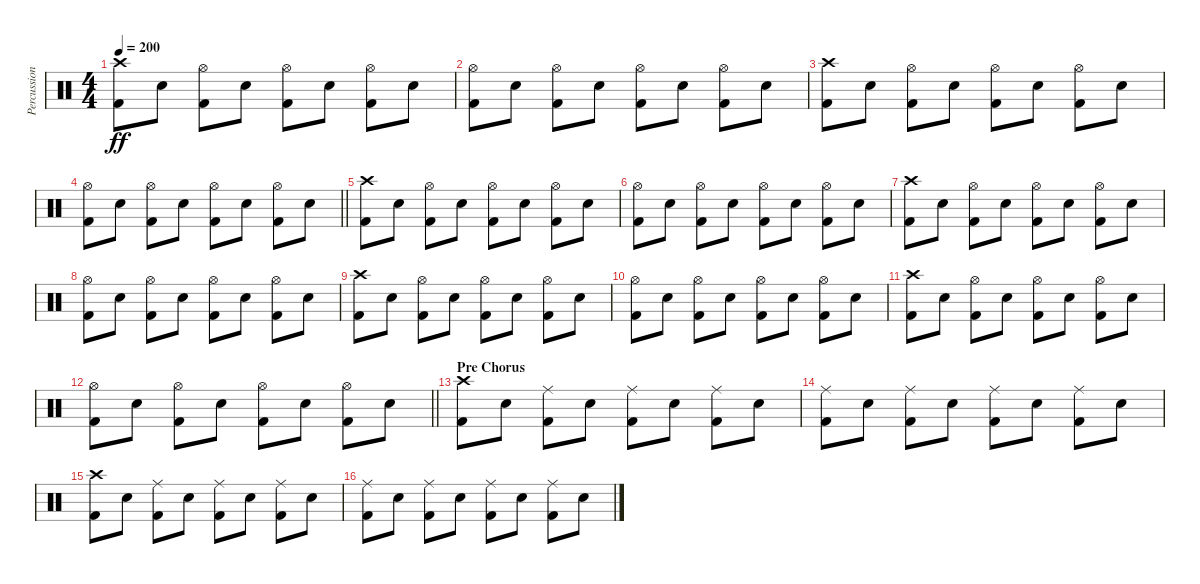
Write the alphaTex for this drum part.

\track ("Percussion" "Percussion") {instrument percussion}
\staff {score}
\articulation defaults
\ts (4 4)
\tempo 200
\clef neutral
\ks c
("Crash high (hit)" "Kick (hit) 2").8{dy ff} "Snare (hit) 2".8 ("Hi-Hat (open)" "Kick (hit) 2").8 "Snare (hit) 2".8 ("Hi-Hat (open)" "Kick (hit) 2").8 "Snare (hit) 2".8 ("Hi-Hat (open)" "Kick (hit) 2").8 "Snare (hit) 2".8 |
("Hi-Hat (open)" "Kick (hit) 2").8 "Snare (hit) 2".8 ("Hi-Hat (open)" "Kick (hit) 2").8 "Snare (hit) 2".8 ("Hi-Hat (open)" "Kick (hit) 2").8 "Snare (hit) 2".8 ("Hi-Hat (open)" "Kick (hit) 2").8 "Snare (hit) 2".8 |
("Crash high (hit)" "Kick (hit) 2").8 "Snare (hit) 2".8 ("Hi-Hat (open)" "Kick (hit) 2").8 "Snare (hit) 2".8 ("Hi-Hat (open)" "Kick (hit) 2").8 "Snare (hit) 2".8 ("Hi-Hat (open)" "Kick (hit) 2").8 "Snare (hit) 2".8 |
\barLineRight lightlight
("Hi-Hat (open)" "Kick (hit) 2").8 "Snare (hit) 2".8 ("Hi-Hat (open)" "Kick (hit) 2").8 "Snare (hit) 2".8 ("Hi-Hat (open)" "Kick (hit) 2").8 "Snare (hit) 2".8 ("Hi-Hat (open)" "Kick (hit) 2").8 "Snare (hit) 2".8 |
("Crash high (hit)" "Kick (hit) 2").8 "Snare (hit) 2".8 ("Hi-Hat (open)" "Kick (hit) 2").8 "Snare (hit) 2".8 ("Hi-Hat (open)" "Kick (hit) 2").8 "Snare (hit) 2".8 ("Hi-Hat (open)" "Kick (hit) 2").8 "Snare (hit) 2".8 |
("Hi-Hat (open)" "Kick (hit) 2").8 "Snare (hit) 2".8 ("Hi-Hat (open)" "Kick (hit) 2").8 "Snare (hit) 2".8 ("Hi-Hat (open)" "Kick (hit) 2").8 "Snare (hit) 2".8 ("Hi-Hat (open)" "Kick (hit) 2").8 "Snare (hit) 2".8 |
("Crash high (hit)" "Kick (hit) 2").8 "Snare (hit) 2".8 ("Hi-Hat (open)" "Kick (hit) 2").8 "Snare (hit) 2".8 ("Hi-Hat (open)" "Kick (hit) 2").8 "Snare (hit) 2".8 ("Hi-Hat (open)" "Kick (hit) 2").8 "Snare (hit) 2".8 |
("Hi-Hat (open)" "Kick (hit) 2").8 "Snare (hit) 2".8 ("Hi-Hat (open)" "Kick (hit) 2").8 "Snare (hit) 2".8 ("Hi-Hat (open)" "Kick (hit) 2").8 "Snare (hit) 2".8 ("Hi-Hat (open)" "Kick (hit) 2").8 "Snare (hit) 2".8 |
("Crash high (hit)" "Kick (hit) 2").8 "Snare (hit) 2".8 ("Hi-Hat (open)" "Kick (hit) 2").8 "Snare (hit) 2".8 ("Hi-Hat (open)" "Kick (hit) 2").8 "Snare (hit) 2".8 ("Hi-Hat (open)" "Kick (hit) 2").8 "Snare (hit) 2".8 |
("Hi-Hat (open)" "Kick (hit) 2").8 "Snare (hit) 2".8 ("Hi-Hat (open)" "Kick (hit) 2").8 "Snare (hit) 2".8 ("Hi-Hat (open)" "Kick (hit) 2").8 "Snare (hit) 2".8 ("Hi-Hat (open)" "Kick (hit) 2").8 "Snare (hit) 2".8 |
("Crash high (hit)" "Kick (hit) 2").8 "Snare (hit) 2".8 ("Hi-Hat (open)" "Kick (hit) 2").8 "Snare (hit) 2".8 ("Hi-Hat (open)" "Kick (hit) 2").8 "Snare (hit) 2".8 ("Hi-Hat (open)" "Kick (hit) 2").8 "Snare (hit) 2".8 |
\barLineRight lightlight
("Hi-Hat (open)" "Kick (hit) 2").8 "Snare (hit) 2".8 ("Hi-Hat (open)" "Kick (hit) 2").8 "Snare (hit) 2".8 ("Hi-Hat (open)" "Kick (hit) 2").8 "Snare (hit) 2".8 ("Hi-Hat (open)" "Kick (hit) 2").8 "Snare (hit) 2".8 |
\section ("" "Pre Chorus")
("Crash high (hit)" "Kick (hit) 2").8 "Snare (hit) 2".8 ("Ride (middle)" "Kick (hit) 2").8 "Snare (hit) 2".8 ("Ride (middle)" "Kick (hit) 2").8 "Snare (hit) 2".8 ("Ride (middle)" "Kick (hit) 2").8 "Snare (hit) 2".8 |
("Ride (middle)" "Kick (hit) 2").8 "Snare (hit) 2".8 ("Ride (middle)" "Kick (hit) 2").8 "Snare (hit) 2".8 ("Ride (middle)" "Kick (hit) 2").8 "Snare (hit) 2".8 ("Ride (middle)" "Kick (hit) 2").8 "Snare (hit) 2".8 |
("Crash high (hit)" "Kick (hit) 2").8 "Snare (hit) 2".8 ("Ride (middle)" "Kick (hit) 2").8 "Snare (hit) 2".8 ("Ride (middle)" "Kick (hit) 2").8 "Snare (hit) 2".8 ("Ride (middle)" "Kick (hit) 2").8 "Snare (hit) 2".8 |
("Ride (middle)" "Kick (hit) 2").8 "Snare (hit) 2".8 ("Ride (middle)" "Kick (hit) 2").8 "Snare (hit) 2".8 ("Ride (middle)" "Kick (hit) 2").8 "Snare (hit) 2".8 ("Ride (middle)" "Kick (hit) 2").8 "Snare (hit) 2".8
